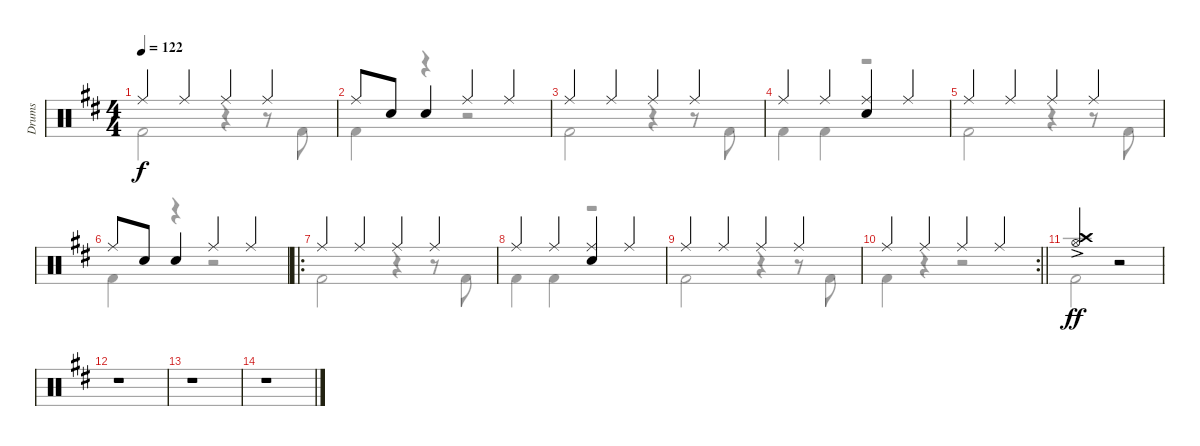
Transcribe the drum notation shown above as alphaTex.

\track ("Drums" "Drums") {instrument percussion}
\staff {score}
\articulation defaults
\voice
\ts (4 4)
\tempo 122
\clef neutral
\ks d "Ride (middle)".4{dy f} "Ride (middle)".4 "Ride (middle)".4 "Ride (middle)".4
|
"Ride (middle)".8 "Electric Snare (hit)".8 "Electric Snare (hit)".4 "Ride (middle)".4 "Ride (middle)".4 |
"Ride (middle)".4 "Ride (middle)".4 "Ride (middle)".4 "Ride (middle)".4 |
"Ride (middle)".4 "Ride (middle)".4 ("Ride (middle)" "Electric Snare (hit)").4 "Ride (middle)".4 |
"Ride (middle)".4 "Ride (middle)".4 "Ride (middle)".4 "Ride (middle)".4 |
"Ride (middle)".8 "Electric Snare (hit)".8 "Electric Snare (hit)".4 "Ride (middle)".4 "Ride (middle)".4 |
\ro "Ride (middle)".4 "Ride (middle)".4 "Ride (middle)".4 "Ride (middle)".4
|
"Ride (middle)".4 "Ride (middle)".4 ("Ride (middle)" "Electric Snare (hit)").4 "Ride (middle)".4 |
"Ride (middle)".4 "Ride (middle)".4 "Ride (middle)".4 "Ride (middle)".4 |
\rc 2
\barLineRight lightlight "Ride (middle)".4 "Ride (middle)".4 "Ride (middle)".4 "Ride (middle)".4
|
("Crash high (hit)"{ac} "Hi-Hat (open)"{ac}).2{dy ff} r.2 |
r.1 |
r.1 |
r.1 |
|
\voice
\clef neutral
\ottava regular
\simile none
\ks d "Kick (hit) 2".2{dy f}
r.4 r.8 "Kick (hit) 2".8 |
"Kick (hit) 2".4 r.4 r.2 |
"Kick (hit) 2".2 r.4 r.8 "Kick (hit) 2".8 |
"Kick (hit) 2".4 "Kick (hit) 2".4 r.2 |
"Kick (hit) 2".2 r.4 r.8 "Kick (hit) 2".8 |
"Kick (hit) 2".4 r.4 r.2 |
"Kick (hit) 2".2 r.4 r.8 "Kick (hit) 2".8 |
"Kick (hit) 2".4 "Kick (hit) 2".4 r.2 |
"Kick (hit) 2".2 r.4 r.8 "Kick (hit) 2".8 |
\barLineRight lightlight "Kick (hit) 2".4
r.4 r.2 |
"Kick (hit) 2".2 r.2 |
|
|
|
|
